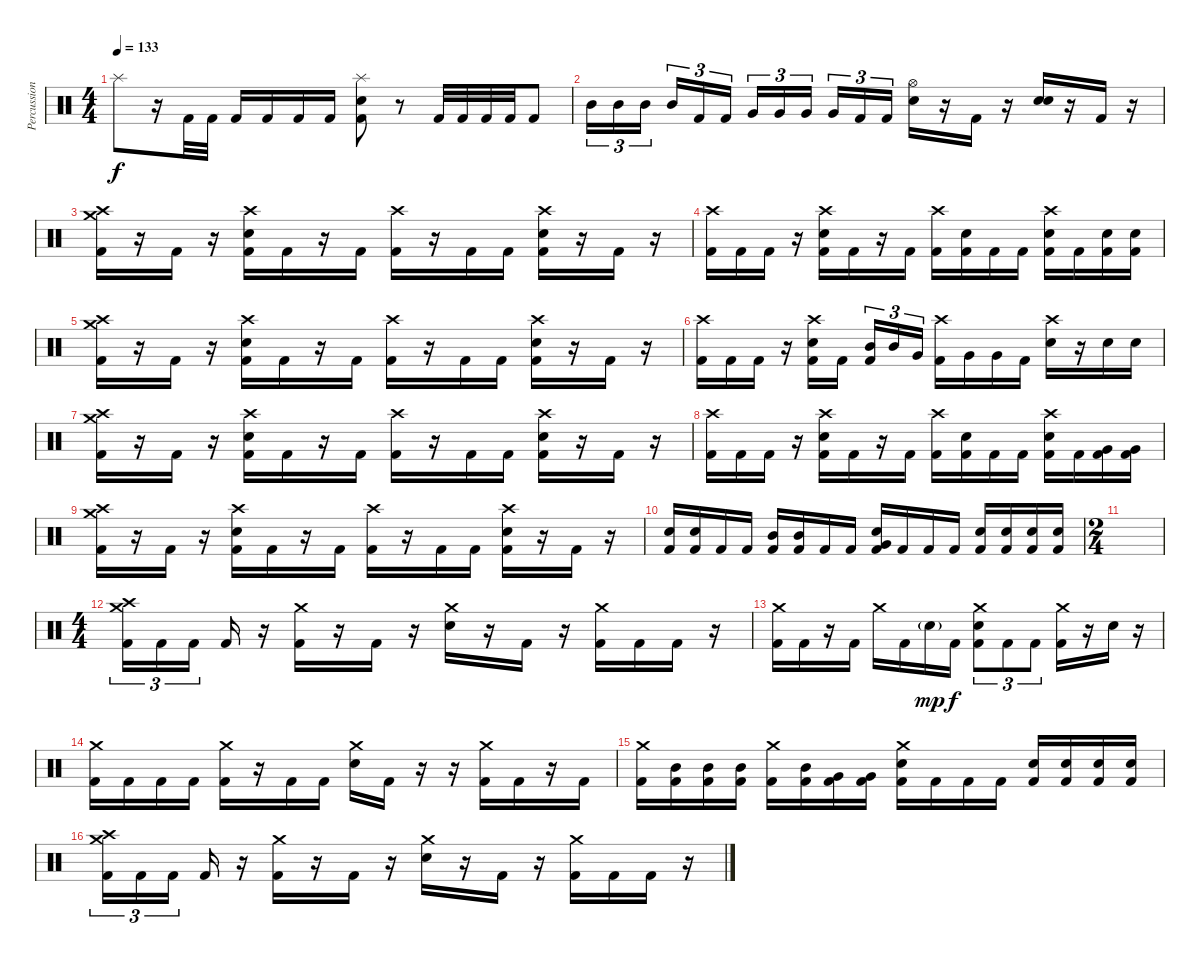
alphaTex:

\track ("Percussion" "Percussion") {instrument percussion}
\staff {score}
\articulation defaults
\ts (4 4)
\tempo 133
\clef neutral
\ks c "Splash (hit)".8{dy f}
r.16 "Kick (hit) 2".32 "Kick (hit) 2".32 "Kick (hit) 2".16 "Kick (hit) 2".16 "Kick (hit) 2".16 "Kick (hit) 2".16 ("Kick (hit) 2" "Electric Snare (hit)" "Splash (hit)").8 r.8 "Kick (hit) 2".32 "Kick (hit) 2".32 "Kick (hit) 2".32 "Kick (hit) 2".32 "Kick (hit) 2".8 |
"Mid Tom (hit)".16{tu (3 2)} "Mid Tom (hit)".16{tu (3 2)} "Mid Tom (hit)".16{tu (3 2) beam splitsecondary} "Mid Tom (hit)".16{tu (3 2)} "Kick (hit) 2".16{tu (3 2)} "Kick (hit) 2".16{tu (3 2)} "Very Low Tom (hit)".16{tu (3 2)} "Very Low Tom (hit)".16{tu (3 2)} "Very Low Tom (hit)".16{tu (3 2) beam splitsecondary} "Very Low Tom (hit)".16{tu (3 2)} "Kick (hit) 2".16{tu (3 2)} "Kick (hit) 2".16{tu (3 2)} ("Electric Snare (hit)" "Hi-Hat (open)").16 r.16 "Kick (hit) 2".16 r.16 ("Electric Snare (hit)" "Electric Snare (hit)").16 r.16 "Kick (hit) 2".16 r.16 |
("Kick (hit) 2" "Crash medium (hit)" "Crash high (hit)").16 r.16 "Kick (hit) 2".16 r.16 ("Kick (hit) 2" "Electric Snare (hit)" "Crash high (hit)").16 "Kick (hit) 2".16 r.16 "Kick (hit) 2".16 ("Kick (hit) 2" "Crash high (hit)").16 r.16 "Kick (hit) 2".16 "Kick (hit) 2".16 ("Kick (hit) 2" "Electric Snare (hit)" "Crash high (hit)").16 r.16 "Kick (hit) 2".16 r.16 |
("Kick (hit) 2" "Crash high (hit)").16 "Kick (hit) 2".16 "Kick (hit) 2".16 r.16 ("Kick (hit) 2" "Electric Snare (hit)" "Crash high (hit)").16 "Kick (hit) 2".16 r.16 "Kick (hit) 2".16 ("Kick (hit) 2" "Crash high (hit)").16 ("Kick (hit) 2" "Electric Snare (hit)").16 "Kick (hit) 2".16 "Kick (hit) 2".16 ("Kick (hit) 2" "Electric Snare (hit)" "Crash high (hit)").16 "Kick (hit) 2".16 ("Kick (hit) 2" "Electric Snare (hit)").16 ("Kick (hit) 2" "Electric Snare (hit)").16 |
("Kick (hit) 2" "Crash medium (hit)" "Crash high (hit)").16 r.16 "Kick (hit) 2".16 r.16 ("Kick (hit) 2" "Electric Snare (hit)" "Crash high (hit)").16 "Kick (hit) 2".16 r.16 "Kick (hit) 2".16 ("Kick (hit) 2" "Crash high (hit)").16 r.16 "Kick (hit) 2".16 "Kick (hit) 2".16 ("Kick (hit) 2" "Electric Snare (hit)" "Crash high (hit)").16 r.16 "Kick (hit) 2".16 r.16 |
("Kick (hit) 2" "Crash high (hit)").16 "Kick (hit) 2".16 "Kick (hit) 2".16 r.16 ("Kick (hit) 2" "Electric Snare (hit)" "Crash high (hit)").16 "Kick (hit) 2".16{beam splitsecondary} ("Kick (hit) 2" "Mid Tom (hit)").16{tu (3 2)} "Mid Tom (hit)".16{tu (3 2)} "Very Low Tom (hit)".16{tu (3 2)} ("Kick (hit) 2" "Crash high (hit)").16 "Very Low Tom (hit)".16 "Very Low Tom (hit)".16 "Kick (hit) 2".16 ("Electric Snare (hit)" "Crash high (hit)").16 r.16 "Electric Snare (hit)".16 "Electric Snare (hit)".16 |
("Kick (hit) 2" "Crash medium (hit)" "Crash high (hit)").16 r.16 "Kick (hit) 2".16 r.16 ("Kick (hit) 2" "Electric Snare (hit)" "Crash high (hit)").16 "Kick (hit) 2".16 r.16 "Kick (hit) 2".16 ("Kick (hit) 2" "Crash high (hit)").16 r.16 "Kick (hit) 2".16 "Kick (hit) 2".16 ("Kick (hit) 2" "Electric Snare (hit)" "Crash high (hit)").16 r.16 "Kick (hit) 2".16 r.16 |
("Kick (hit) 2" "Crash high (hit)").16 "Kick (hit) 2".16 "Kick (hit) 2".16 r.16 ("Kick (hit) 2" "Electric Snare (hit)" "Crash high (hit)").16 "Kick (hit) 2".16 r.16 "Kick (hit) 2".16 ("Kick (hit) 2" "Crash high (hit)").16 ("Kick (hit) 2" "Electric Snare (hit)").16 "Kick (hit) 2".16 "Kick (hit) 2".16 ("Kick (hit) 2" "Electric Snare (hit)" "Crash high (hit)").16 "Kick (hit) 2".16 ("Kick (hit) 2" "Very Low Tom (hit)").16 ("Kick (hit) 2" "Very Low Tom (hit)").16 |
("Kick (hit) 2" "Crash medium (hit)" "Crash high (hit)").16 r.16 "Kick (hit) 2".16 r.16 ("Kick (hit) 2" "Electric Snare (hit)" "Crash high (hit)").16 "Kick (hit) 2".16 r.16 "Kick (hit) 2".16 ("Kick (hit) 2" "Crash high (hit)").16 r.16 "Kick (hit) 2".16 "Kick (hit) 2".16 ("Kick (hit) 2" "Electric Snare (hit)" "Crash high (hit)").16 r.16 "Kick (hit) 2".16 r.16 |
("Kick (hit) 2" "Electric Snare (hit)").16 ("Kick (hit) 2" "Electric Snare (hit)").16 "Kick (hit) 2".16 "Kick (hit) 2".16 ("Kick (hit) 2" "Mid Tom (hit)").16 ("Kick (hit) 2" "Mid Tom (hit)").16 "Kick (hit) 2".16 "Kick (hit) 2".16 ("Kick (hit) 2" "Electric Snare (hit)" "Very Low Tom (hit)").16 "Kick (hit) 2".16 "Kick (hit) 2".16 "Kick (hit) 2".16 ("Kick (hit) 2" "Electric Snare (hit)").16 ("Kick (hit) 2" "Electric Snare (hit)").16 ("Kick (hit) 2" "Electric Snare (hit)").16 ("Kick (hit) 2" "Electric Snare (hit)").16 |
\ts (2 4)
|
\ts (4 4)
("Kick (hit) 2" "Crash medium (hit)" "Crash high (hit)").16{tu (3 2)} "Kick (hit) 2".16{tu (3 2)} "Kick (hit) 2".16{tu (3 2) beam splitsecondary} "Kick (hit) 2".16 r.16 ("Kick (hit) 2" "Crash medium (hit)").16 r.16 "Kick (hit) 2".16 r.16 ("Electric Snare (hit)" "Crash medium (hit)").16 r.16 "Kick (hit) 2".16 r.16 ("Kick (hit) 2" "Crash medium (hit)").16 "Kick (hit) 2".16 "Kick (hit) 2".16 r.16 |
("Kick (hit) 2" "Crash medium (hit)").16 "Kick (hit) 2".16 r.16 "Kick (hit) 2".16 "Crash medium (hit)".16 "Kick (hit) 2".16 "Electric Snare (hit)"{g}.16{dy mp} "Kick (hit) 2".16{dy f} ("Kick (hit) 2" "Electric Snare (hit)" "Crash medium (hit)").8{tu (3 2)} "Kick (hit) 2".8{tu (3 2)} "Kick (hit) 2".8{tu (3 2)} ("Kick (hit) 2" "Crash medium (hit)").16 r.16 "Electric Snare (hit)".16 r.16 |
("Kick (hit) 2" "Crash medium (hit)").16 "Kick (hit) 2".16 "Kick (hit) 2".16 "Kick (hit) 2".16 ("Kick (hit) 2" "Crash medium (hit)").16 r.16 "Kick (hit) 2".16 "Kick (hit) 2".16 ("Electric Snare (hit)" "Crash medium (hit)").16 "Kick (hit) 2".16 r.16 r.16 ("Kick (hit) 2" "Crash medium (hit)").16 "Kick (hit) 2".16 r.16 "Kick (hit) 2".16 |
("Kick (hit) 2" "Crash medium (hit)").16 ("Kick (hit) 2" "Mid Tom (hit)").16 ("Kick (hit) 2" "Mid Tom (hit)").16 ("Kick (hit) 2" "Mid Tom (hit)").16 ("Kick (hit) 2" "Crash medium (hit)").16 ("Kick (hit) 2" "Mid Tom (hit)").16 ("Kick (hit) 2" "Very Low Tom (hit)").16 ("Kick (hit) 2" "Very Low Tom (hit)").16 ("Kick (hit) 2" "Electric Snare (hit)" "Crash medium (hit)").16 "Kick (hit) 2".16 "Kick (hit) 2".16 "Kick (hit) 2".16 ("Kick (hit) 2" "Electric Snare (hit)").16 ("Kick (hit) 2" "Electric Snare (hit)").16 ("Kick (hit) 2" "Electric Snare (hit)").16 ("Kick (hit) 2" "Electric Snare (hit)").16 |
("Kick (hit) 2" "Crash medium (hit)" "Crash high (hit)").16{tu (3 2)} "Kick (hit) 2".16{tu (3 2)} "Kick (hit) 2".16{tu (3 2) beam splitsecondary} "Kick (hit) 2".16 r.16 ("Kick (hit) 2" "Crash medium (hit)").16 r.16 "Kick (hit) 2".16 r.16 ("Electric Snare (hit)" "Crash medium (hit)").16 r.16 "Kick (hit) 2".16 r.16 ("Kick (hit) 2" "Crash medium (hit)").16 "Kick (hit) 2".16 "Kick (hit) 2".16 r.16
